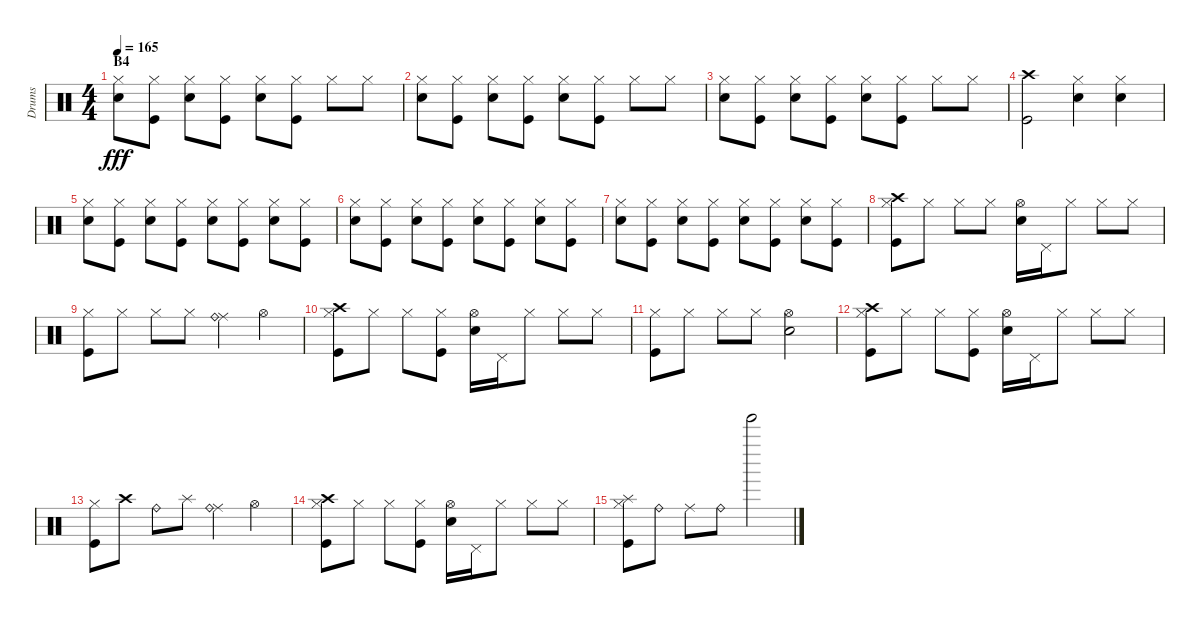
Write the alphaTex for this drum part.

\track ("Drums" "Drums") {instrument percussion}
\staff {score}
\articulation defaults
\ts (4 4)
\section ("" "B4")
\tempo 165
\clef neutral
\ks c
("Hi-Hat (closed)" "Snare (hit) 2").8{dy fff} ("Hi-Hat (closed)" "Kick (hit)").8 ("Hi-Hat (closed)" "Snare (hit) 2").8 ("Hi-Hat (closed)" "Kick (hit)").8 ("Hi-Hat (closed)" "Snare (hit) 2").8 ("Hi-Hat (closed)" "Kick (hit)").8 "Hi-Hat (closed)".8 "Hi-Hat (closed)".8 |
("Hi-Hat (closed)" "Snare (hit) 2").8 ("Hi-Hat (closed)" "Kick (hit)").8 ("Hi-Hat (closed)" "Snare (hit) 2").8 ("Hi-Hat (closed)" "Kick (hit)").8 ("Hi-Hat (closed)" "Snare (hit) 2").8 ("Hi-Hat (closed)" "Kick (hit)").8 "Hi-Hat (closed)".8 "Hi-Hat (closed)".8 |
("Hi-Hat (closed)" "Snare (hit) 2").8 ("Hi-Hat (closed)" "Kick (hit)").8 ("Hi-Hat (closed)" "Snare (hit) 2").8 ("Hi-Hat (closed)" "Kick (hit)").8 ("Hi-Hat (closed)" "Snare (hit) 2").8 ("Hi-Hat (closed)" "Kick (hit)").8 "Hi-Hat (closed)".8 "Hi-Hat (closed)".8 |
("Crash high (hit)" "Kick (hit)").2 ("Hi-Hat (closed)" "Snare (hit) 2").4 ("Hi-Hat (closed)" "Snare (hit) 2").4 |
("Hi-Hat (closed)" "Snare (hit) 2").8 ("Hi-Hat (closed)" "Kick (hit)").8 ("Hi-Hat (closed)" "Snare (hit) 2").8 ("Hi-Hat (closed)" "Kick (hit)").8 ("Hi-Hat (closed)" "Snare (hit) 2").8 ("Hi-Hat (closed)" "Kick (hit)").8 ("Hi-Hat (closed)" "Snare (hit) 2").8 ("Hi-Hat (closed)" "Kick (hit)").8 |
("Hi-Hat (closed)" "Snare (hit) 2").8 ("Hi-Hat (closed)" "Kick (hit)").8 ("Hi-Hat (closed)" "Snare (hit) 2").8 ("Hi-Hat (closed)" "Kick (hit)").8 ("Hi-Hat (closed)" "Snare (hit) 2").8 ("Hi-Hat (closed)" "Kick (hit)").8 ("Hi-Hat (closed)" "Snare (hit) 2").8 ("Hi-Hat (closed)" "Kick (hit)").8 |
("Hi-Hat (closed)" "Snare (hit) 2").8 ("Hi-Hat (closed)" "Kick (hit)").8 ("Hi-Hat (closed)" "Snare (hit) 2").8 ("Hi-Hat (closed)" "Kick (hit)").8 ("Hi-Hat (closed)" "Snare (hit) 2").8 ("Hi-Hat (closed)" "Kick (hit)").8 ("Hi-Hat (closed)" "Snare (hit) 2").8 ("Hi-Hat (closed)" "Kick (hit)").8 |
("Hi-Hat (closed)" "Crash high (hit)" "Kick (hit)").8 "Hi-Hat (closed)".8 "Hi-Hat (closed)".8 "Hi-Hat (closed)".8 ("Hi-Hat (open)" "Snare (hit) 2").16 "Pedal Hi-Hat (hit)".16 "Hi-Hat (closed)".8 "Hi-Hat (closed)".8 "Hi-Hat (closed)".8 |
("Hi-Hat (closed)" "Kick (hit)").8 "Hi-Hat (closed)".8 "Hi-Hat (closed)".8 "Hi-Hat (closed)".8 ("Ride (middle)" "Ride (bell)").4 "Hi-Hat (open)".4 |
("Hi-Hat (closed)" "Crash high (hit)" "Kick (hit)").8 "Hi-Hat (closed)".8 "Hi-Hat (closed)".8 ("Hi-Hat (closed)" "Kick (hit)").8 ("Hi-Hat (open)" "Snare (hit) 2").16 "Pedal Hi-Hat (hit)".16 "Hi-Hat (closed)".8 "Hi-Hat (closed)".8 "Hi-Hat (closed)".8 |
("Hi-Hat (closed)" "Kick (hit)").8 "Hi-Hat (closed)".8 "Hi-Hat (closed)".8 "Hi-Hat (closed)".8 ("Hi-Hat (open)" "Snare (hit) 2").2 |
("Hi-Hat (closed)" "Crash high (hit)" "Kick (hit)").8 "Hi-Hat (closed)".8 "Hi-Hat (closed)".8 ("Hi-Hat (closed)" "Kick (hit)").8 ("Hi-Hat (open)" "Snare (hit) 2").16 "Pedal Hi-Hat (hit)".16 "Hi-Hat (closed)".8 "Hi-Hat (closed)".8 "Hi-Hat (closed)".8 |
("Hi-Hat (closed)" "Kick (hit)").8 "Crash high (hit)".8 "Ride (bell)".8 "Splash (hit)".8 ("Ride (middle)" "Ride (bell)").4 "Hi-Hat (open)".4 |
("Hi-Hat (closed)" "Crash high (hit)" "Kick (hit)").8 "Hi-Hat (closed)".8 "Hi-Hat (closed)".8 ("Hi-Hat (closed)" "Kick (hit)").8 ("Hi-Hat (open)" "Snare (hit) 2").16 "Pedal Hi-Hat (hit)".16 "Hi-Hat (closed)".8 "Hi-Hat (closed)".8 "Hi-Hat (closed)".8 |
("Hi-Hat (closed)" "Splash (hit)" "Kick (hit)").8 "Ride (bell)".8 "Ride (middle)".8 "Ride (bell)".8 "Tinkle Bell (hit)".2
